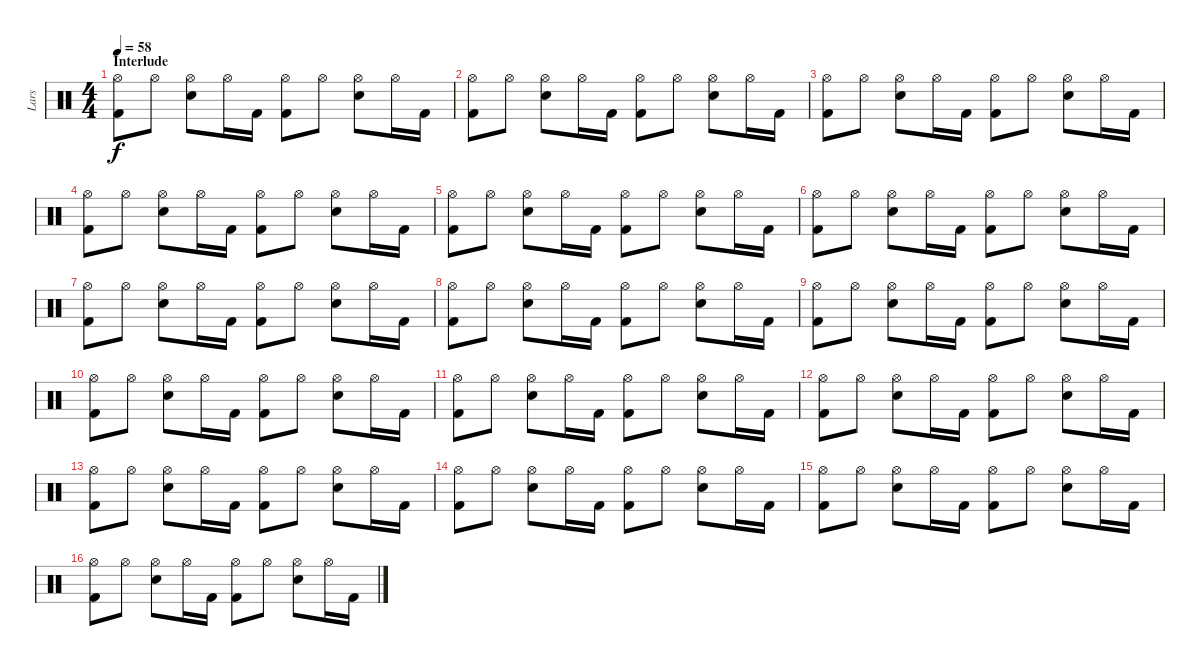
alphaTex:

\track ("Lars " "Lars ") {instrument percussion}
\staff {score}
\articulation defaults
\ts (4 4)
\section ("" "Interlude")
\tempo 58
\clef neutral
\ks c
("Kick (hit) 2" "Hi-Hat (open)").8{dy f} "Hi-Hat (open)".8 ("Snare (hit) 2" "Hi-Hat (open)").8 "Hi-Hat (open)".16 "Kick (hit) 2".16 ("Kick (hit) 2" "Hi-Hat (open)").8 "Hi-Hat (open)".8 ("Snare (hit) 2" "Hi-Hat (open)").8 "Hi-Hat (open)".16 "Kick (hit) 2".16 |
("Kick (hit) 2" "Hi-Hat (open)").8 "Hi-Hat (open)".8 ("Snare (hit) 2" "Hi-Hat (open)").8 "Hi-Hat (open)".16 "Kick (hit) 2".16 ("Kick (hit) 2" "Hi-Hat (open)").8 "Hi-Hat (open)".8 ("Snare (hit) 2" "Hi-Hat (open)").8 "Hi-Hat (open)".16 "Kick (hit) 2".16 |
("Kick (hit) 2" "Hi-Hat (open)").8 "Hi-Hat (open)".8 ("Snare (hit) 2" "Hi-Hat (open)").8 "Hi-Hat (open)".16 "Kick (hit) 2".16 ("Kick (hit) 2" "Hi-Hat (open)").8 "Hi-Hat (open)".8 ("Snare (hit) 2" "Hi-Hat (open)").8 "Hi-Hat (open)".16 "Kick (hit) 2".16 |
("Kick (hit) 2" "Hi-Hat (open)").8 "Hi-Hat (open)".8 ("Snare (hit) 2" "Hi-Hat (open)").8 "Hi-Hat (open)".16 "Kick (hit) 2".16 ("Kick (hit) 2" "Hi-Hat (open)").8 "Hi-Hat (open)".8 ("Snare (hit) 2" "Hi-Hat (open)").8 "Hi-Hat (open)".16 "Kick (hit) 2".16 |
("Kick (hit) 2" "Hi-Hat (open)").8 "Hi-Hat (open)".8 ("Snare (hit) 2" "Hi-Hat (open)").8 "Hi-Hat (open)".16 "Kick (hit) 2".16 ("Kick (hit) 2" "Hi-Hat (open)").8 "Hi-Hat (open)".8 ("Snare (hit) 2" "Hi-Hat (open)").8 "Hi-Hat (open)".16 "Kick (hit) 2".16 |
("Kick (hit) 2" "Hi-Hat (open)").8 "Hi-Hat (open)".8 ("Snare (hit) 2" "Hi-Hat (open)").8 "Hi-Hat (open)".16 "Kick (hit) 2".16 ("Kick (hit) 2" "Hi-Hat (open)").8 "Hi-Hat (open)".8 ("Snare (hit) 2" "Hi-Hat (open)").8 "Hi-Hat (open)".16 "Kick (hit) 2".16 |
("Kick (hit) 2" "Hi-Hat (open)").8 "Hi-Hat (open)".8 ("Snare (hit) 2" "Hi-Hat (open)").8 "Hi-Hat (open)".16 "Kick (hit) 2".16 ("Kick (hit) 2" "Hi-Hat (open)").8 "Hi-Hat (open)".8 ("Snare (hit) 2" "Hi-Hat (open)").8 "Hi-Hat (open)".16 "Kick (hit) 2".16 |
("Kick (hit) 2" "Hi-Hat (open)").8 "Hi-Hat (open)".8 ("Snare (hit) 2" "Hi-Hat (open)").8 "Hi-Hat (open)".16 "Kick (hit) 2".16 ("Kick (hit) 2" "Hi-Hat (open)").8 "Hi-Hat (open)".8 ("Snare (hit) 2" "Hi-Hat (open)").8 "Hi-Hat (open)".16 "Kick (hit) 2".16 |
("Kick (hit) 2" "Hi-Hat (open)").8 "Hi-Hat (open)".8 ("Snare (hit) 2" "Hi-Hat (open)").8 "Hi-Hat (open)".16 "Kick (hit) 2".16 ("Kick (hit) 2" "Hi-Hat (open)").8 "Hi-Hat (open)".8 ("Snare (hit) 2" "Hi-Hat (open)").8 "Hi-Hat (open)".16 "Kick (hit) 2".16 |
("Kick (hit) 2" "Hi-Hat (open)").8 "Hi-Hat (open)".8 ("Snare (hit) 2" "Hi-Hat (open)").8 "Hi-Hat (open)".16 "Kick (hit) 2".16 ("Kick (hit) 2" "Hi-Hat (open)").8 "Hi-Hat (open)".8 ("Snare (hit) 2" "Hi-Hat (open)").8 "Hi-Hat (open)".16 "Kick (hit) 2".16 |
("Kick (hit) 2" "Hi-Hat (open)").8 "Hi-Hat (open)".8 ("Snare (hit) 2" "Hi-Hat (open)").8 "Hi-Hat (open)".16 "Kick (hit) 2".16 ("Kick (hit) 2" "Hi-Hat (open)").8 "Hi-Hat (open)".8 ("Snare (hit) 2" "Hi-Hat (open)").8 "Hi-Hat (open)".16 "Kick (hit) 2".16 |
("Kick (hit) 2" "Hi-Hat (open)").8 "Hi-Hat (open)".8 ("Snare (hit) 2" "Hi-Hat (open)").8 "Hi-Hat (open)".16 "Kick (hit) 2".16 ("Kick (hit) 2" "Hi-Hat (open)").8 "Hi-Hat (open)".8 ("Snare (hit) 2" "Hi-Hat (open)").8 "Hi-Hat (open)".16 "Kick (hit) 2".16 |
("Kick (hit) 2" "Hi-Hat (open)").8 "Hi-Hat (open)".8 ("Snare (hit) 2" "Hi-Hat (open)").8 "Hi-Hat (open)".16 "Kick (hit) 2".16 ("Kick (hit) 2" "Hi-Hat (open)").8 "Hi-Hat (open)".8 ("Snare (hit) 2" "Hi-Hat (open)").8 "Hi-Hat (open)".16 "Kick (hit) 2".16 |
("Kick (hit) 2" "Hi-Hat (open)").8 "Hi-Hat (open)".8 ("Snare (hit) 2" "Hi-Hat (open)").8 "Hi-Hat (open)".16 "Kick (hit) 2".16 ("Kick (hit) 2" "Hi-Hat (open)").8 "Hi-Hat (open)".8 ("Snare (hit) 2" "Hi-Hat (open)").8 "Hi-Hat (open)".16 "Kick (hit) 2".16 |
("Kick (hit) 2" "Hi-Hat (open)").8 "Hi-Hat (open)".8 ("Snare (hit) 2" "Hi-Hat (open)").8 "Hi-Hat (open)".16 "Kick (hit) 2".16 ("Kick (hit) 2" "Hi-Hat (open)").8 "Hi-Hat (open)".8 ("Snare (hit) 2" "Hi-Hat (open)").8 "Hi-Hat (open)".16 "Kick (hit) 2".16 |
("Kick (hit) 2" "Hi-Hat (open)").8 "Hi-Hat (open)".8 ("Snare (hit) 2" "Hi-Hat (open)").8 "Hi-Hat (open)".16 "Kick (hit) 2".16 ("Kick (hit) 2" "Hi-Hat (open)").8 "Hi-Hat (open)".8 ("Snare (hit) 2" "Hi-Hat (open)").8 "Hi-Hat (open)".16 "Kick (hit) 2".16
